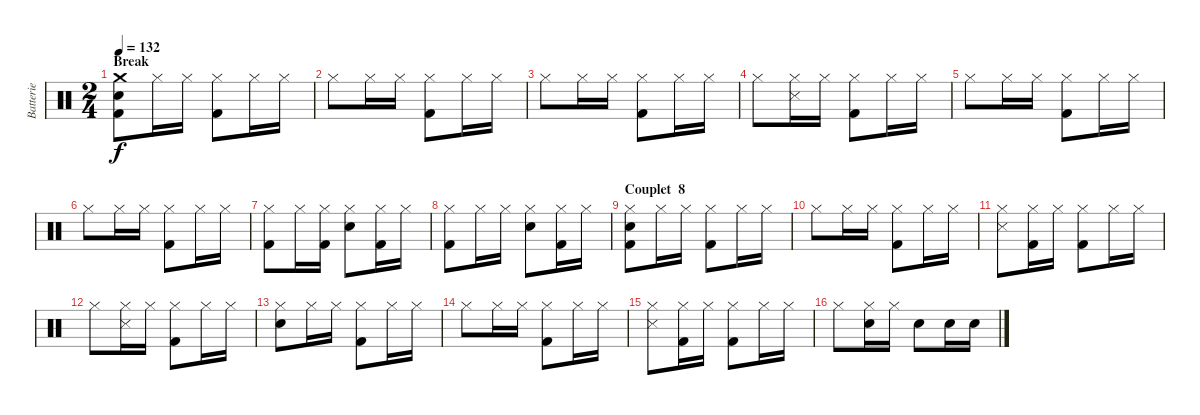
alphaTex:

\track ("Batterie" "Batterie") {instrument percussion}
\staff {score}
\articulation defaults
\ts (2 4)
\section ("" "Break")
\tempo 132
\clef neutral
\ks c
("Crash medium (hit)" "Snare (hit) 2" "Kick (hit) 2").8{dy f} "Hi-Hat (closed)".16 "Hi-Hat (closed)".16 ("Hi-Hat (closed)" "Kick (hit) 2").8 "Hi-Hat (closed)".16 "Hi-Hat (closed)".16 |
"Hi-Hat (closed)".8 "Hi-Hat (closed)".16 "Hi-Hat (closed)".16 ("Hi-Hat (closed)" "Kick (hit) 2").8 "Hi-Hat (closed)".16 "Hi-Hat (closed)".16 |
"Hi-Hat (closed)".8 "Hi-Hat (closed)".16 "Hi-Hat (closed)".16 ("Hi-Hat (closed)" "Kick (hit) 2").8 "Hi-Hat (closed)".16 "Hi-Hat (closed)".16 |
"Hi-Hat (closed)".8 ("Hi-Hat (closed)" "Snare (side stick) 3").16 "Hi-Hat (closed)".16 ("Hi-Hat (closed)" "Kick (hit) 2").8 "Hi-Hat (closed)".16 "Hi-Hat (closed)".16 |
"Hi-Hat (closed)".8 "Hi-Hat (closed)".16 "Hi-Hat (closed)".16 ("Hi-Hat (closed)" "Kick (hit) 2").8 "Hi-Hat (closed)".16 "Hi-Hat (closed)".16 |
"Hi-Hat (closed)".8 "Hi-Hat (closed)".16 "Hi-Hat (closed)".16 ("Hi-Hat (closed)" "Kick (hit) 2").8 "Hi-Hat (closed)".16 "Hi-Hat (closed)".16 |
("Hi-Hat (closed)" "Kick (hit) 2").8 "Hi-Hat (closed)".16 ("Hi-Hat (closed)" "Kick (hit) 2").16 ("Hi-Hat (closed)" "Snare (hit) 2").8 ("Hi-Hat (closed)" "Kick (hit) 2").16 "Hi-Hat (closed)".16 |
("Hi-Hat (closed)" "Kick (hit) 2").8 "Hi-Hat (closed)".16 "Hi-Hat (closed)".16 ("Hi-Hat (closed)" "Snare (hit) 2").8 ("Hi-Hat (closed)" "Kick (hit) 2").16 "Hi-Hat (closed)".16 |
\section ("" "Couplet  8")
("Hi-Hat (closed)" "Snare (hit) 2" "Kick (hit) 2").8 "Hi-Hat (closed)".16 "Hi-Hat (closed)".16 ("Hi-Hat (closed)" "Kick (hit) 2").8 "Hi-Hat (closed)".16 "Hi-Hat (closed)".16 |
"Hi-Hat (closed)".8 "Hi-Hat (closed)".16 "Hi-Hat (closed)".16 ("Hi-Hat (closed)" "Kick (hit) 2").8 "Hi-Hat (closed)".16 "Hi-Hat (closed)".16 |
("Hi-Hat (closed)" "Snare (side stick) 3").8 ("Hi-Hat (closed)" "Kick (hit) 2").16 "Hi-Hat (closed)".16 ("Hi-Hat (closed)" "Kick (hit) 2").8 "Hi-Hat (closed)".16 "Hi-Hat (closed)".16 |
"Hi-Hat (closed)".8 ("Hi-Hat (closed)" "Snare (side stick) 3").16 "Hi-Hat (closed)".16 ("Hi-Hat (closed)" "Kick (hit) 2").8 "Hi-Hat (closed)".16 "Hi-Hat (closed)".16 |
("Hi-Hat (closed)" "Snare (hit) 2").8 "Hi-Hat (closed)".16 "Hi-Hat (closed)".16 ("Hi-Hat (closed)" "Kick (hit) 2").8 "Hi-Hat (closed)".16 "Hi-Hat (closed)".16 |
"Hi-Hat (closed)".8 "Hi-Hat (closed)".16 "Hi-Hat (closed)".16 ("Hi-Hat (closed)" "Kick (hit) 2").8 "Hi-Hat (closed)".16 "Hi-Hat (closed)".16 |
("Hi-Hat (closed)" "Snare (side stick) 3").8 ("Hi-Hat (closed)" "Kick (hit) 2").16 "Hi-Hat (closed)".16 ("Hi-Hat (closed)" "Kick (hit) 2").8 "Hi-Hat (closed)".16 "Hi-Hat (closed)".16 |
"Hi-Hat (closed)".8 ("Hi-Hat (closed)" "Snare (hit) 2").16 "Hi-Hat (closed)".16 "Snare (hit) 2".8 "Snare (hit) 2".16 "Snare (hit) 2".16
